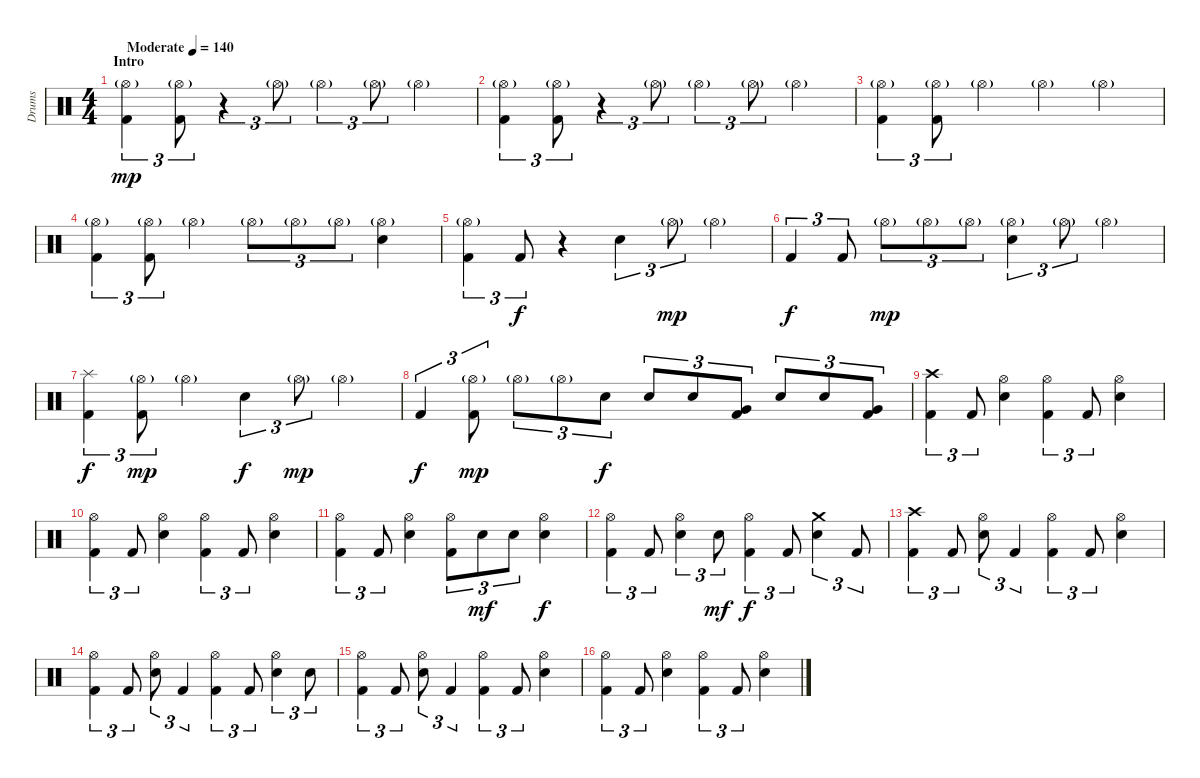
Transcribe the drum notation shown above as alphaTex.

\track ("Drums" "Drums") {instrument percussion}
\staff {score}
\articulation defaults
\ts (4 4)
\section ("" "Intro")
\tempo (140 "Moderate")
\clef neutral
\ks c
("Hi-Hat (open)"{g} "Kick (hit) 2").4{tu (3 2) dy mp} ("Hi-Hat (open)"{g} "Kick (hit) 2").8{tu (3 2)} r.4{tu (3 2)} "Hi-Hat (open)"{g}.8{tu (3 2)} "Hi-Hat (open)"{g}.4{tu (3 2)} "Hi-Hat (open)"{g}.8{tu (3 2)} "Hi-Hat (open)"{g}.4 |
("Hi-Hat (open)"{g} "Kick (hit) 2").4{tu (3 2)} ("Hi-Hat (open)"{g} "Kick (hit) 2").8{tu (3 2)} r.4{tu (3 2)} "Hi-Hat (open)"{g}.8{tu (3 2)} "Hi-Hat (open)"{g}.4{tu (3 2)} "Hi-Hat (open)"{g}.8{tu (3 2)} "Hi-Hat (open)"{g}.4 |
("Hi-Hat (open)"{g} "Kick (hit) 2").4{tu (3 2)} ("Hi-Hat (open)"{g} "Kick (hit) 2").8{tu (3 2)} "Hi-Hat (open)"{g}.4 "Hi-Hat (open)"{g}.4 "Hi-Hat (open)"{g}.4 |
("Hi-Hat (open)"{g} "Kick (hit) 2").4{tu (3 2)} ("Hi-Hat (open)"{g} "Kick (hit) 2").8{tu (3 2)} "Hi-Hat (open)"{g}.4 "Hi-Hat (open)"{g}.8{tu (3 2)} "Hi-Hat (open)"{g}.8{tu (3 2)} "Hi-Hat (open)"{g}.8{tu (3 2)} ("Hi-Hat (open)"{g} "Electric Snare (hit)").4 |
("Hi-Hat (open)"{g} "Kick (hit) 2").4{tu (3 2)} "Kick (hit) 2".8{tu (3 2) dy f} r.4 "Electric Snare (hit)".4{tu (3 2)} "Hi-Hat (open)"{g}.8{tu (3 2) dy mp} "Hi-Hat (open)"{g}.4 |
"Kick (hit) 2".4{tu (3 2) dy f} "Kick (hit) 2".8{tu (3 2)} "Hi-Hat (open)"{g}.8{tu (3 2) dy mp} "Hi-Hat (open)"{g}.8{tu (3 2)} "Hi-Hat (open)"{g}.8{tu (3 2)} ("Hi-Hat (open)"{g} "Electric Snare (hit)").4{tu (3 2)} "Hi-Hat (open)"{g}.8{tu (3 2)} "Hi-Hat (open)"{g}.4 |
("Splash (hit)" "Kick (hit) 2").4{tu (3 2) dy f} ("Hi-Hat (open)"{g} "Kick (hit) 2").8{tu (3 2) dy mp} "Hi-Hat (open)"{g}.4 "Electric Snare (hit)".4{tu (3 2) dy f} "Hi-Hat (open)"{g}.8{tu (3 2) dy mp} "Hi-Hat (open)"{g}.4 |
"Kick (hit) 2".4{tu (3 2) dy f} ("Hi-Hat (open)"{g} "Kick (hit) 2").8{tu (3 2) dy mp} "Hi-Hat (open)"{g}.8{tu (3 2)} "Hi-Hat (open)"{g}.8{tu (3 2)} "Electric Snare (hit)".8{tu (3 2) dy f} "Electric Snare (hit)".8{tu (3 2)} "Electric Snare (hit)".8{tu (3 2)} ("Very Low Tom (hit)" "Kick (hit) 2").8{tu (3 2)} "Electric Snare (hit)".8{tu (3 2)} "Electric Snare (hit)".8{tu (3 2)} ("Very Low Tom (hit)" "Kick (hit) 2").8{tu (3 2)} |
("Crash high (hit)" "Kick (hit) 2").4{tu (3 2)} "Kick (hit) 2".8{tu (3 2)} ("Hi-Hat (open)" "Electric Snare (hit)").4 ("Hi-Hat (open)" "Kick (hit) 2").4{tu (3 2)} "Kick (hit) 2".8{tu (3 2)} ("Hi-Hat (open)" "Electric Snare (hit)").4 |
("Hi-Hat (open)" "Kick (hit) 2").4{tu (3 2)} "Kick (hit) 2".8{tu (3 2)} ("Hi-Hat (open)" "Electric Snare (hit)").4 ("Hi-Hat (open)" "Kick (hit) 2").4{tu (3 2)} "Kick (hit) 2".8{tu (3 2)} ("Hi-Hat (open)" "Electric Snare (hit)").4 |
("Hi-Hat (open)" "Kick (hit) 2").4{tu (3 2)} "Kick (hit) 2".8{tu (3 2)} ("Hi-Hat (open)" "Electric Snare (hit)").4 ("Hi-Hat (open)" "Kick (hit) 2").8{tu (3 2)} "Electric Snare (hit)".8{tu (3 2) dy mf} "Electric Snare (hit)".8{tu (3 2)} ("Hi-Hat (open)" "Electric Snare (hit)").4{dy f} |
("Hi-Hat (open)" "Kick (hit) 2").4{tu (3 2)} "Kick (hit) 2".8{tu (3 2)} ("Hi-Hat (open)" "Electric Snare (hit)").4{tu (3 2)} "Electric Snare (hit)".8{tu (3 2) dy mf} ("Hi-Hat (open)" "Kick (hit) 2").4{tu (3 2) dy f} "Kick (hit) 2".8{tu (3 2)} ("Crash medium (hit)" "Electric Snare (hit)").4{tu (3 2)} "Kick (hit) 2".8{tu (3 2)} |
("Crash high (hit)" "Kick (hit) 2").4{tu (3 2)} "Kick (hit) 2".8{tu (3 2)} ("Hi-Hat (open)" "Electric Snare (hit)").8{tu (3 2)} "Kick (hit) 2".4{tu (3 2)} ("Hi-Hat (open)" "Kick (hit) 2").4{tu (3 2)} "Kick (hit) 2".8{tu (3 2)} ("Hi-Hat (open)" "Electric Snare (hit)").4 |
("Hi-Hat (open)" "Kick (hit) 2").4{tu (3 2)} "Kick (hit) 2".8{tu (3 2)} ("Hi-Hat (open)" "Electric Snare (hit)").8{tu (3 2)} "Kick (hit) 2".4{tu (3 2)} ("Hi-Hat (open)" "Kick (hit) 2").4{tu (3 2)} "Kick (hit) 2".8{tu (3 2)} ("Hi-Hat (open)" "Electric Snare (hit)").4{tu (3 2)} "Electric Snare (hit)".8{tu (3 2)} |
("Hi-Hat (open)" "Kick (hit) 2").4{tu (3 2)} "Kick (hit) 2".8{tu (3 2)} ("Hi-Hat (open)" "Electric Snare (hit)").8{tu (3 2)} "Kick (hit) 2".4{tu (3 2)} ("Hi-Hat (open)" "Kick (hit) 2").4{tu (3 2)} "Kick (hit) 2".8{tu (3 2)} ("Hi-Hat (open)" "Electric Snare (hit)").4 |
("Hi-Hat (open)" "Kick (hit) 2").4{tu (3 2)} "Kick (hit) 2".8{tu (3 2)} ("Hi-Hat (open)" "Electric Snare (hit)").4 ("Hi-Hat (open)" "Kick (hit) 2").4{tu (3 2)} "Kick (hit) 2".8{tu (3 2)} ("Hi-Hat (open)" "Electric Snare (hit)").4
